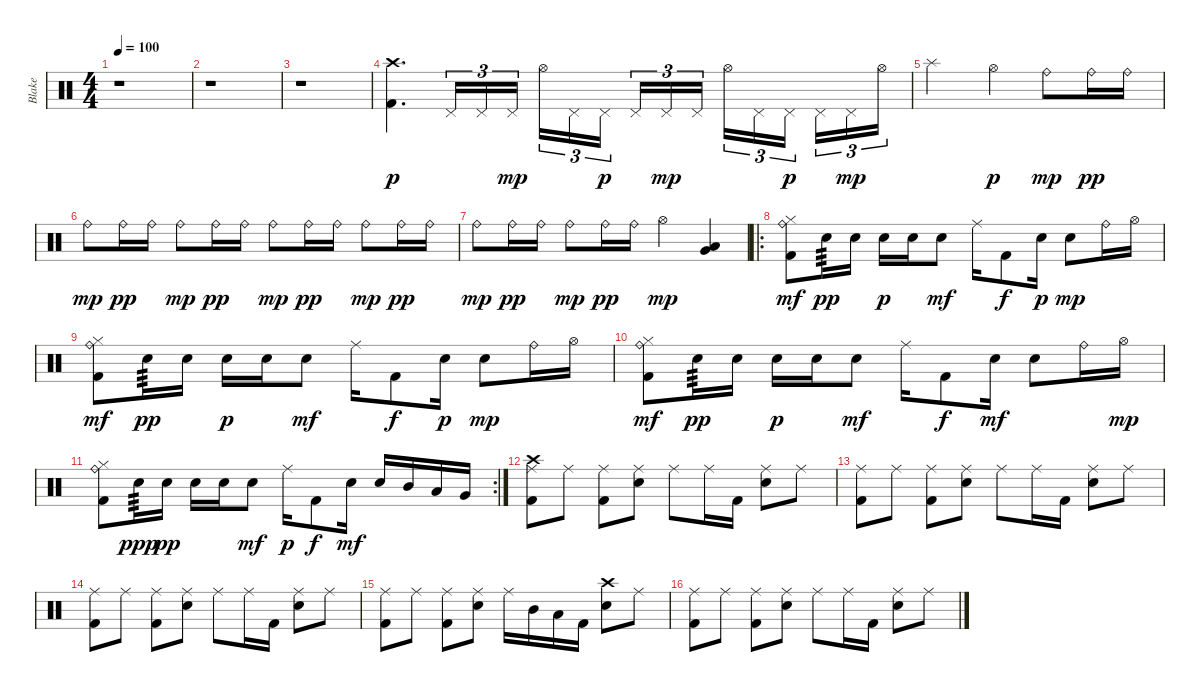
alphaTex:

\track ("Blake" "Blake") {instrument percussion}
\staff {score}
\articulation defaults
\ts (4 4)
\tempo 100
\clef neutral
\ks c
r.1{dy f} |
r.1 |
r.1 |
("Crash high (hit)" "Kick (hit) 2").4{d dy p} "Pedal Hi-Hat (hit)".16{tu (3 2)} "Pedal Hi-Hat (hit)".16{tu (3 2)} "Pedal Hi-Hat (hit)".16{tu (3 2) dy mp} "Hi-Hat (open)".16{tu (3 2)} "Pedal Hi-Hat (hit)".16{tu (3 2)} "Pedal Hi-Hat (hit)".16{tu (3 2) dy p beam splitsecondary} "Pedal Hi-Hat (hit)".16{tu (3 2)} "Pedal Hi-Hat (hit)".16{tu (3 2) dy mp} "Pedal Hi-Hat (hit)".16{tu (3 2)} "Hi-Hat (open)".16{tu (3 2)} "Pedal Hi-Hat (hit)".16{tu (3 2)} "Pedal Hi-Hat (hit)".16{tu (3 2) dy p beam splitsecondary} "Pedal Hi-Hat (hit)".16{tu (3 2)} "Pedal Hi-Hat (hit)".16{tu (3 2) dy mp} "Hi-Hat (open)".16{tu (3 2)} |
"Splash (hit)".2 "Hi-Hat (open)".4{dy p} "Ride (bell)".8{dy mp} "Ride (bell)".16{dy pp} "Ride (bell)".16 |
"Ride (bell)".8{dy mp} "Ride (bell)".16{dy pp} "Ride (bell)".16 "Ride (bell)".8{dy mp} "Ride (bell)".16{dy pp} "Ride (bell)".16 "Ride (bell)".8{dy mp} "Ride (bell)".16{dy pp} "Ride (bell)".16 "Ride (bell)".8{dy mp} "Ride (bell)".16{dy pp} "Ride (bell)".16 |
"Ride (bell)".8{dy mp} "Ride (bell)".16{dy pp} "Ride (bell)".16 "Ride (bell)".8{dy mp} "Ride (bell)".16{dy pp} "Ride (bell)".16 "Hi-Hat (open)".4{dy mp} ("Very Low Tom (hit)" "Low Tom (hit)").4 |
\ro
("Ride (bell)" "Hi-Hat (closed)" "Kick (hit) 2").8{dy mf} "Snare (hit) 2".16{tp 3 dy pp} "Snare (hit) 2".16 "Snare (hit) 2".16{dy p} "Snare (hit) 2".16 "Snare (hit) 2".8{dy mf} "Ride (middle)".16 "Kick (hit) 2".8{dy f} "Snare (hit) 2".16{dy p} "Snare (hit) 2".8{dy mp} "Ride (bell)".16 "Hi-Hat (open)".16 |
("Ride (bell)" "Hi-Hat (closed)" "Kick (hit) 2").8{dy mf} "Snare (hit) 2".16{tp 3 dy pp} "Snare (hit) 2".16 "Snare (hit) 2".16{dy p} "Snare (hit) 2".16 "Snare (hit) 2".8{dy mf} "Ride (middle)".16 "Kick (hit) 2".8{dy f} "Snare (hit) 2".16{dy p} "Snare (hit) 2".8{dy mp} "Ride (bell)".16 "Hi-Hat (open)".16 |
("Ride (bell)" "Hi-Hat (closed)" "Kick (hit) 2").8{dy mf} "Snare (hit) 2".16{tp 3 dy pp} "Snare (hit) 2".16 "Snare (hit) 2".16{dy p} "Snare (hit) 2".16 "Snare (hit) 2".8{dy mf} "Ride (middle)".16 "Kick (hit) 2".8{dy f} "Snare (hit) 2".16{dy mf} "Snare (hit) 2".8 "Ride (bell)".16 "Hi-Hat (open)".16{dy mp} |
\rc 2
("Ride (bell)" "Hi-Hat (closed)" "Kick (hit) 2").8 "Snare (hit) 2".16{tp 3 dy ppp} "Snare (hit) 2".16{dy pp} "Snare (hit) 2".16 "Snare (hit) 2".16 "Snare (hit) 2".8{dy mf} "Ride (middle)".16{dy p} "Kick (hit) 2".8{dy f} "Snare (hit) 2".16{dy mf} "Snare (hit) 2".16 "Mid Tom (hit)".16 "Low Tom (hit)".16 "Very Low Tom (hit)".16 |
("Ride (middle)" "Crash high (hit)" "Kick (hit) 2").8 "Ride (middle)".8 ("Ride (middle)" "Kick (hit) 2").8 ("Ride (middle)" "Snare (hit) 2").8 "Ride (middle)".8 "Ride (middle)".16 "Kick (hit) 2".16 ("Ride (middle)" "Snare (hit) 2").8 "Ride (middle)".8 |
("Ride (middle)" "Kick (hit) 2").8 "Ride (middle)".8 ("Ride (middle)" "Kick (hit) 2").8 ("Ride (middle)" "Snare (hit) 2").8 "Ride (middle)".8 "Ride (middle)".16 "Kick (hit) 2".16 ("Ride (middle)" "Snare (hit) 2").8 "Ride (middle)".8 |
("Ride (middle)" "Kick (hit) 2").8 "Ride (middle)".8 ("Ride (middle)" "Kick (hit) 2").8 ("Ride (middle)" "Snare (hit) 2").8 "Ride (middle)".8 "Ride (middle)".16 "Kick (hit) 2".16 ("Ride (middle)" "Snare (hit) 2").8 "Ride (middle)".8 |
("Ride (middle)" "Kick (hit) 2").8 "Ride (middle)".8 ("Ride (middle)" "Kick (hit) 2").8 ("Ride (middle)" "Snare (hit) 2").8 "Ride (middle)".16 "Mid Tom (hit)".16 "Low Tom (hit)".16 "Kick (hit) 2".16 ("Crash high (hit)" "Snare (hit) 2").8 "Ride (middle)".8 |
("Ride (middle)" "Kick (hit) 2").8 "Ride (middle)".8 ("Ride (middle)" "Kick (hit) 2").8 ("Ride (middle)" "Snare (hit) 2").8 "Ride (middle)".8 "Ride (middle)".16 "Kick (hit) 2".16 ("Ride (middle)" "Snare (hit) 2").8 "Ride (middle)".8
